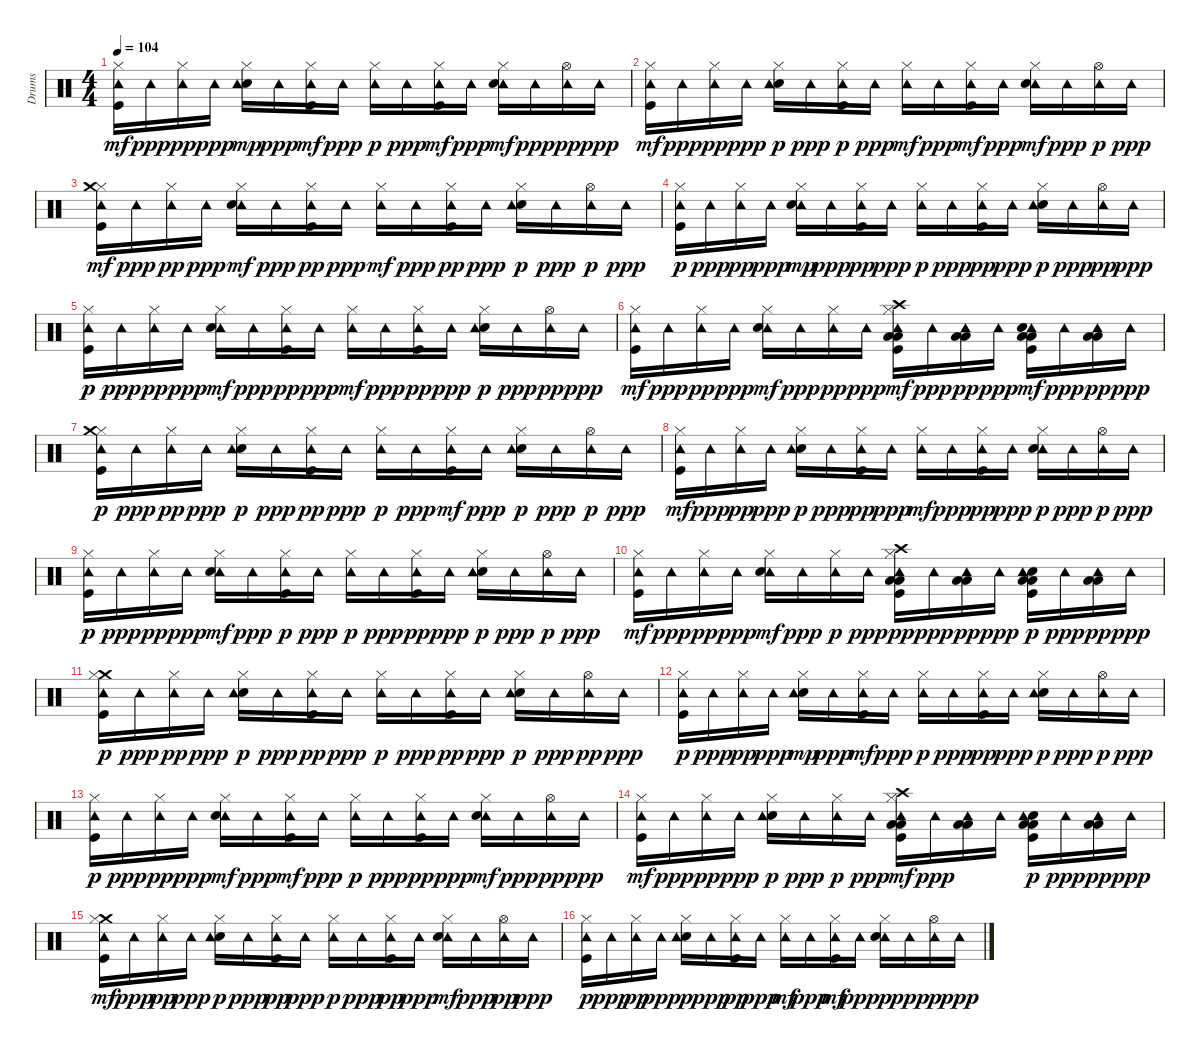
\track ("Drums" "Drums") {instrument percussion}
\staff {score}
\articulation defaults
\ts (4 4)
\tempo 104
\clef neutral
\ks c
("Tambourine (hit)" "Kick (hit)" "Hi-Hat (closed)").16{dy mf} "Tambourine (hit)".16{dy ppp} ("Hi-Hat (closed)" "Tambourine (hit)").16{dy pp} "Tambourine (hit)".16{dy ppp} ("Electric Snare (hit)" "Tambourine (hit)" "Hi-Hat (closed)").16{dy mp} "Tambourine (hit)".16{dy ppp} ("Hi-Hat (closed)" "Tambourine (hit)" "Kick (hit)").16{dy mf} "Tambourine (hit)".16{dy ppp} ("Hi-Hat (closed)" "Tambourine (hit)").16{dy p} "Tambourine (hit)".16{dy ppp} ("Tambourine (hit)" "Hi-Hat (closed)" "Kick (hit)").16{dy mf} "Tambourine (hit)".16{dy ppp} ("Tambourine (hit)" "Hi-Hat (closed)" "Electric Snare (hit)").16{dy mf} "Tambourine (hit)".16{dy ppp} ("Hi-Hat (open)" "Tambourine (hit)").16{dy pp} "Tambourine (hit)".16{dy ppp} |
("Tambourine (hit)" "Hi-Hat (closed)" "Kick (hit)").16{dy mf} "Tambourine (hit)".16{dy ppp} ("Hi-Hat (closed)" "Tambourine (hit)").16{dy pp} "Tambourine (hit)".16{dy ppp} ("Electric Snare (hit)" "Hi-Hat (closed)" "Tambourine (hit)").16{dy p} "Tambourine (hit)".16{dy ppp} ("Kick (hit)" "Tambourine (hit)" "Hi-Hat (closed)").16{dy p} "Tambourine (hit)".16{dy ppp} ("Tambourine (hit)" "Hi-Hat (closed)").16{dy mf} "Tambourine (hit)".16{dy ppp} ("Tambourine (hit)" "Hi-Hat (closed)" "Kick (hit)").16{dy mf} "Tambourine (hit)".16{dy ppp} ("Hi-Hat (closed)" "Tambourine (hit)" "Electric Snare (hit)").16{dy mf} "Tambourine (hit)".16{dy ppp} ("Tambourine (hit)" "Hi-Hat (open)").16{dy p} "Tambourine (hit)".16{dy ppp} |
("Hi-Hat (closed)" "Tambourine (hit)" "Kick (hit)" "Crash medium (hit)").16{dy mf} "Tambourine (hit)".16{dy ppp} ("Tambourine (hit)" "Hi-Hat (closed)").16{dy pp} "Tambourine (hit)".16{dy ppp} ("Tambourine (hit)" "Hi-Hat (closed)" "Electric Snare (hit)").16{dy mf} "Tambourine (hit)".16{dy ppp} ("Kick (hit)" "Hi-Hat (closed)" "Tambourine (hit)").16{dy pp} "Tambourine (hit)".16{dy ppp} ("Tambourine (hit)" "Hi-Hat (closed)").16{dy mf} "Tambourine (hit)".16{dy ppp} ("Kick (hit)" "Tambourine (hit)" "Hi-Hat (closed)").16{dy pp} "Tambourine (hit)".16{dy ppp} ("Hi-Hat (closed)" "Electric Snare (hit)" "Tambourine (hit)").16{dy p} "Tambourine (hit)".16{dy ppp} ("Tambourine (hit)" "Hi-Hat (open)").16{dy p} "Tambourine (hit)".16{dy ppp} |
("Kick (hit)" "Hi-Hat (closed)" "Tambourine (hit)").16{dy p} "Tambourine (hit)".16{dy ppp} ("Hi-Hat (closed)" "Tambourine (hit)").16{dy pp} "Tambourine (hit)".16{dy ppp} ("Tambourine (hit)" "Electric Snare (hit)" "Hi-Hat (closed)").16{dy mp} "Tambourine (hit)".16{dy ppp} ("Hi-Hat (closed)" "Kick (hit)" "Tambourine (hit)").16{dy pp} "Tambourine (hit)".16{dy ppp} ("Hi-Hat (closed)" "Tambourine (hit)").16{dy p} "Tambourine (hit)".16{dy ppp} ("Kick (hit)" "Hi-Hat (closed)" "Tambourine (hit)").16{dy pp} "Tambourine (hit)".16{dy ppp} ("Electric Snare (hit)" "Hi-Hat (closed)" "Tambourine (hit)").16{dy p} "Tambourine (hit)".16{dy ppp} ("Hi-Hat (open)" "Tambourine (hit)").16{dy pp} "Tambourine (hit)".16{dy ppp} |
("Hi-Hat (closed)" "Kick (hit)" "Tambourine (hit)").16{dy p} "Tambourine (hit)".16{dy ppp} ("Tambourine (hit)" "Hi-Hat (closed)").16{dy pp} "Tambourine (hit)".16{dy ppp} ("Hi-Hat (closed)" "Tambourine (hit)" "Electric Snare (hit)").16{dy mf} "Tambourine (hit)".16{dy ppp} ("Kick (hit)" "Hi-Hat (closed)" "Tambourine (hit)").16{dy pp} "Tambourine (hit)".16{dy ppp} ("Tambourine (hit)" "Hi-Hat (closed)").16{dy mf} "Tambourine (hit)".16{dy ppp} ("Kick (hit)" "Hi-Hat (closed)" "Tambourine (hit)").16{dy pp} "Tambourine (hit)".16{dy ppp} ("Electric Snare (hit)" "Hi-Hat (closed)" "Tambourine (hit)").16{dy p} "Tambourine (hit)".16{dy ppp} ("Hi-Hat (open)" "Tambourine (hit)").16{dy pp} "Tambourine (hit)".16{dy ppp} |
("Hi-Hat (closed)" "Tambourine (hit)" "Kick (hit)").16{dy mf} "Tambourine (hit)".16{dy ppp} ("Hi-Hat (closed)" "Tambourine (hit)").16{dy pp} "Tambourine (hit)".16{dy ppp} ("Tambourine (hit)" "Hi-Hat (closed)" "Electric Snare (hit)").16{dy mf} "Tambourine (hit)".16{dy ppp} ("Hi-Hat (closed)" "Tambourine (hit)").16{dy pp} "Tambourine (hit)".16{dy ppp} ("Kick (hit)" "Tambourine (hit)" "Hi-Hat (closed)" "Low Tom (hit)" "Crash high (hit)" "Low Floor Tom (hit)").16{dy mf} "Tambourine (hit)".16{dy ppp} ("Low Floor Tom (hit)" "Tambourine (hit)" "Low Tom (hit)").16{dy pp} "Tambourine (hit)".16{dy ppp} ("Tambourine (hit)" "Low Tom (hit)" "Kick (hit)" "Low Floor Tom (hit)" "Electric Snare (hit)").16{dy mf} "Tambourine (hit)".16{dy ppp} ("Low Tom (hit)" "Low Floor Tom (hit)" "Tambourine (hit)").16{dy pp} "Tambourine (hit)".16{dy ppp} |
("Kick (hit)" "Hi-Hat (closed)" "Crash medium (hit)" "Tambourine (hit)").16{dy p} "Tambourine (hit)".16{dy ppp} ("Hi-Hat (closed)" "Tambourine (hit)").16{dy pp} "Tambourine (hit)".16{dy ppp} ("Electric Snare (hit)" "Tambourine (hit)" "Hi-Hat (closed)").16{dy p} "Tambourine (hit)".16{dy ppp} ("Tambourine (hit)" "Kick (hit)" "Hi-Hat (closed)").16{dy pp} "Tambourine (hit)".16{dy ppp} ("Hi-Hat (closed)" "Tambourine (hit)").16{dy p} "Tambourine (hit)".16{dy ppp} ("Tambourine (hit)" "Hi-Hat (closed)" "Kick (hit)").16{dy mf} "Tambourine (hit)".16{dy ppp} ("Electric Snare (hit)" "Tambourine (hit)" "Hi-Hat (closed)").16{dy p} "Tambourine (hit)".16{dy ppp} ("Tambourine (hit)" "Hi-Hat (open)").16{dy p} "Tambourine (hit)".16{dy ppp} |
("Tambourine (hit)" "Kick (hit)" "Hi-Hat (closed)").16{dy mf} "Tambourine (hit)".16{dy ppp} ("Hi-Hat (closed)" "Tambourine (hit)").16{dy pp} "Tambourine (hit)".16{dy ppp} ("Hi-Hat (closed)" "Electric Snare (hit)" "Tambourine (hit)").16{dy p} "Tambourine (hit)".16{dy ppp} ("Hi-Hat (closed)" "Kick (hit)" "Tambourine (hit)").16{dy pp} "Tambourine (hit)".16{dy ppp} ("Tambourine (hit)" "Hi-Hat (closed)").16{dy mf} "Tambourine (hit)".16{dy ppp} ("Kick (hit)" "Hi-Hat (closed)" "Tambourine (hit)").16{dy pp} "Tambourine (hit)".16{dy ppp} ("Tambourine (hit)" "Electric Snare (hit)" "Hi-Hat (closed)").16{dy p} "Tambourine (hit)".16{dy ppp} ("Tambourine (hit)" "Hi-Hat (open)").16{dy p} "Tambourine (hit)".16{dy ppp} |
("Hi-Hat (closed)" "Kick (hit)" "Tambourine (hit)").16{dy p} "Tambourine (hit)".16{dy ppp} ("Tambourine (hit)" "Hi-Hat (closed)").16{dy pp} "Tambourine (hit)".16{dy ppp} ("Tambourine (hit)" "Hi-Hat (closed)" "Electric Snare (hit)").16{dy mf} "Tambourine (hit)".16{dy ppp} ("Tambourine (hit)" "Kick (hit)" "Hi-Hat (closed)").16{dy p} "Tambourine (hit)".16{dy ppp} ("Hi-Hat (closed)" "Tambourine (hit)").16{dy p} "Tambourine (hit)".16{dy ppp} ("Hi-Hat (closed)" "Kick (hit)" "Tambourine (hit)").16{dy pp} "Tambourine (hit)".16{dy ppp} ("Hi-Hat (closed)" "Electric Snare (hit)" "Tambourine (hit)").16{dy p} "Tambourine (hit)".16{dy ppp} ("Tambourine (hit)" "Hi-Hat (open)").16{dy p} "Tambourine (hit)".16{dy ppp} |
("Kick (hit)" "Tambourine (hit)" "Hi-Hat (closed)").16{dy mf} "Tambourine (hit)".16{dy ppp} ("Hi-Hat (closed)" "Tambourine (hit)").16{dy pp} "Tambourine (hit)".16{dy ppp} ("Tambourine (hit)" "Hi-Hat (closed)" "Electric Snare (hit)").16{dy mf} "Tambourine (hit)".16{dy ppp} ("Tambourine (hit)" "Hi-Hat (closed)").16{dy p} "Tambourine (hit)".16{dy ppp} ("Kick (hit)" "Hi-Hat (closed)" "Tambourine (hit)" "Crash high (hit)" "Low Floor Tom (hit)" "Low Tom (hit)").16{dy pp} "Tambourine (hit)".16{dy ppp} ("Low Floor Tom (hit)" "Low Tom (hit)" "Tambourine (hit)").16{dy pp} "Tambourine (hit)".16{dy ppp} ("Low Floor Tom (hit)" "Electric Snare (hit)" "Kick (hit)" "Low Tom (hit)" "Tambourine (hit)").16{dy p} "Tambourine (hit)".16{dy ppp} ("Low Tom (hit)" "Low Floor Tom (hit)" "Tambourine (hit)").16{dy pp} "Tambourine (hit)".16{dy ppp} |
("Kick (hit)" "Crash medium (hit)" "Hi-Hat (closed)" "Tambourine (hit)").16{dy p} "Tambourine (hit)".16{dy ppp} ("Tambourine (hit)" "Hi-Hat (closed)").16{dy pp} "Tambourine (hit)".16{dy ppp} ("Electric Snare (hit)" "Tambourine (hit)" "Hi-Hat (closed)").16{dy p} "Tambourine (hit)".16{dy ppp} ("Kick (hit)" "Tambourine (hit)" "Hi-Hat (closed)").16{dy pp} "Tambourine (hit)".16{dy ppp} ("Hi-Hat (closed)" "Tambourine (hit)").16{dy p} "Tambourine (hit)".16{dy ppp} ("Kick (hit)" "Tambourine (hit)" "Hi-Hat (closed)").16{dy pp} "Tambourine (hit)".16{dy ppp} ("Hi-Hat (closed)" "Electric Snare (hit)" "Tambourine (hit)").16{dy p} "Tambourine (hit)".16{dy ppp} ("Hi-Hat (open)" "Tambourine (hit)").16{dy pp} "Tambourine (hit)".16{dy ppp} |
("Hi-Hat (closed)" "Kick (hit)" "Tambourine (hit)").16{dy p} "Tambourine (hit)".16{dy ppp} ("Tambourine (hit)" "Hi-Hat (closed)").16{dy pp} "Tambourine (hit)".16{dy ppp} ("Electric Snare (hit)" "Tambourine (hit)" "Hi-Hat (closed)").16{dy mp} "Tambourine (hit)".16{dy ppp} ("Tambourine (hit)" "Hi-Hat (closed)" "Kick (hit)").16{dy mf} "Tambourine (hit)".16{dy ppp} ("Hi-Hat (closed)" "Tambourine (hit)").16{dy p} "Tambourine (hit)".16{dy ppp} ("Kick (hit)" "Tambourine (hit)" "Hi-Hat (closed)").16{dy pp} "Tambourine (hit)".16{dy ppp} ("Hi-Hat (closed)" "Electric Snare (hit)" "Tambourine (hit)").16{dy p} "Tambourine (hit)".16{dy ppp} ("Tambourine (hit)" "Hi-Hat (open)").16{dy p} "Tambourine (hit)".16{dy ppp} |
("Kick (hit)" "Hi-Hat (closed)" "Tambourine (hit)").16{dy p} "Tambourine (hit)".16{dy ppp} ("Hi-Hat (closed)" "Tambourine (hit)").16{dy pp} "Tambourine (hit)".16{dy ppp} ("Hi-Hat (closed)" "Tambourine (hit)" "Electric Snare (hit)").16{dy mf} "Tambourine (hit)".16{dy ppp} ("Hi-Hat (closed)" "Tambourine (hit)" "Kick (hit)").16{dy mf} "Tambourine (hit)".16{dy ppp} ("Hi-Hat (closed)" "Tambourine (hit)").16{dy p} "Tambourine (hit)".16{dy ppp} ("Kick (hit)" "Tambourine (hit)" "Hi-Hat (closed)").16{dy pp} "Tambourine (hit)".16{dy ppp} ("Hi-Hat (closed)" "Tambourine (hit)" "Electric Snare (hit)").16{dy mf} "Tambourine (hit)".16{dy ppp} ("Hi-Hat (open)" "Tambourine (hit)").16{dy pp} "Tambourine (hit)".16{dy ppp} |
("Tambourine (hit)" "Hi-Hat (closed)" "Kick (hit)").16{dy mf} "Tambourine (hit)".16{dy ppp} ("Hi-Hat (closed)" "Tambourine (hit)").16{dy pp} "Tambourine (hit)".16{dy ppp} ("Hi-Hat (closed)" "Electric Snare (hit)" "Tambourine (hit)").16{dy p} "Tambourine (hit)".16{dy ppp} ("Tambourine (hit)" "Hi-Hat (closed)").16{dy p} "Tambourine (hit)".16{dy ppp} ("Low Floor Tom (hit)" "Tambourine (hit)" "Low Tom (hit)" "Kick (hit)" "Hi-Hat (closed)" "Crash high (hit)").16{dy mf} "Tambourine (hit)".16{dy ppp} ("Low Tom (hit)" "Tambourine (hit)" "Low Floor Tom (hit)").16 "Tambourine (hit)".16 ("Kick (hit)" "Electric Snare (hit)" "Tambourine (hit)" "Low Floor Tom (hit)" "Low Tom (hit)").16{dy p} "Tambourine (hit)".16{dy ppp} ("Low Floor Tom (hit)" "Low Tom (hit)" "Tambourine (hit)").16{dy pp} "Tambourine (hit)".16{dy ppp} |
("Crash medium (hit)" "Hi-Hat (closed)" "Tambourine (hit)" "Kick (hit)").16{dy mf} "Tambourine (hit)".16{dy ppp} ("Tambourine (hit)" "Hi-Hat (closed)").16{dy pp} "Tambourine (hit)".16{dy ppp} ("Electric Snare (hit)" "Hi-Hat (closed)" "Tambourine (hit)").16{dy p} "Tambourine (hit)".16{dy ppp} ("Tambourine (hit)" "Kick (hit)" "Hi-Hat (closed)").16{dy pp} "Tambourine (hit)".16{dy ppp} ("Hi-Hat (closed)" "Tambourine (hit)").16{dy p} "Tambourine (hit)".16{dy ppp} ("Kick (hit)" "Hi-Hat (closed)" "Tambourine (hit)").16{dy pp} "Tambourine (hit)".16{dy ppp} ("Hi-Hat (closed)" "Tambourine (hit)" "Electric Snare (hit)").16{dy mf} "Tambourine (hit)".16{dy ppp} ("Hi-Hat (open)" "Tambourine (hit)").16{dy pp} "Tambourine (hit)".16{dy ppp} |
("Hi-Hat (closed)" "Kick (hit)" "Tambourine (hit)").16{dy p} "Tambourine (hit)".16{dy ppp} ("Hi-Hat (closed)" "Tambourine (hit)").16{dy pp} "Tambourine (hit)".16{dy ppp} ("Electric Snare (hit)" "Hi-Hat (closed)" "Tambourine (hit)").16{dy p} "Tambourine (hit)".16{dy ppp} ("Hi-Hat (closed)" "Kick (hit)" "Tambourine (hit)").16{dy pp} "Tambourine (hit)".16{dy ppp} ("Tambourine (hit)" "Hi-Hat (closed)").16{dy mf} "Tambourine (hit)".16{dy ppp} ("Tambourine (hit)" "Hi-Hat (closed)" "Kick (hit)").16{dy mf} "Tambourine (hit)".16{dy ppp} ("Tambourine (hit)" "Electric Snare (hit)" "Hi-Hat (closed)").16{dy p} "Tambourine (hit)".16{dy ppp} ("Tambourine (hit)" "Hi-Hat (open)").16{dy p} "Tambourine (hit)".16{dy ppp}
